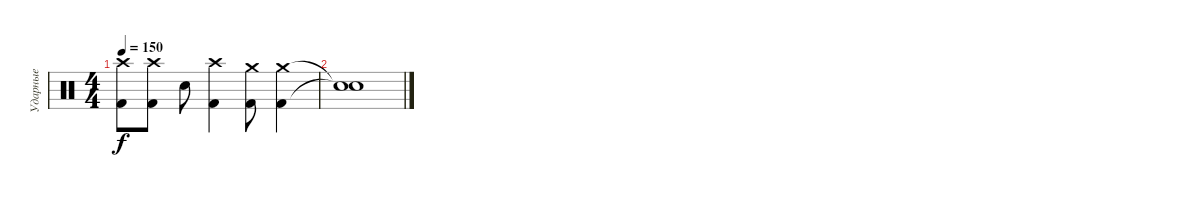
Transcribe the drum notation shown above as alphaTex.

\track ("Ударные" "Ударные") {instrument percussion}
\staff {score}
\articulation defaults
\ts (4 4)
\tempo 150
\clef neutral
\ks c
("Crash high (hit)" "Kick (hit) 2").8{dy f} ("Crash high (hit)" "Kick (hit) 2").8 "Snare (hit) 2".8 ("Crash high (hit)" "Kick (hit) 2").4 ("Crash medium (hit)" "Kick (hit) 2").8 ("Crash medium (hit)" "Kick (hit) 2").4 |
("Snare (hit)"{t} "Snare (hit)"{t}).1
